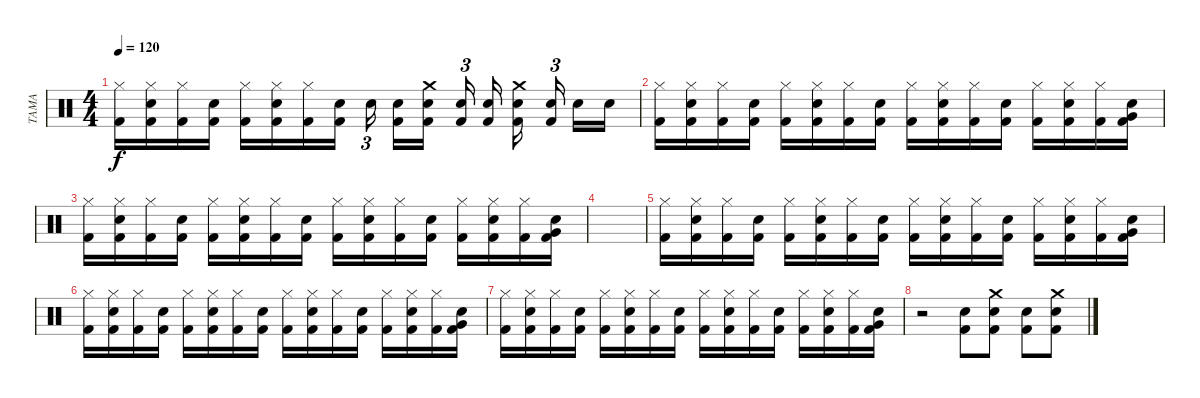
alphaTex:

\track ("TAMA" "TAMA") {instrument percussion}
\staff {score}
\articulation defaults
\ts (4 4)
\tempo 120
\clef neutral
\ks c
("Kick (hit) 2" "Hi-Hat (closed)").16{dy f} ("Kick (hit) 2" "Hi-Hat (closed)" "Electric Snare (hit)").16 ("Kick (hit) 2" "Hi-Hat (closed)").16 ("Kick (hit) 2" "Electric Snare (hit)").16 ("Kick (hit) 2" "Hi-Hat (closed)").16 ("Kick (hit) 2" "Hi-Hat (closed)" "Electric Snare (hit)").16 ("Kick (hit) 2" "Hi-Hat (closed)").16 ("Kick (hit) 2" "Electric Snare (hit)").16 "Electric Snare (hit)".16{tu (3 2)} ("Kick (hit) 2" "Electric Snare (hit)").16 ("Kick (hit) 2" "Electric Snare (hit)" "Crash medium (hit)").16 ("Kick (hit) 2" "Electric Snare (hit)").16{tu (3 2)} ("Kick (hit) 2" "Electric Snare (hit)").16 ("Kick (hit) 2" "Electric Snare (hit)" "Crash medium (hit)").16 ("Kick (hit) 2" "Electric Snare (hit)").16{tu (3 2)} "Electric Snare (hit)".16 "Electric Snare (hit)".16 |
("Kick (hit) 2" "Hi-Hat (closed)").16 ("Kick (hit) 2" "Hi-Hat (closed)" "Electric Snare (hit)").16 ("Kick (hit) 2" "Hi-Hat (closed)").16 ("Kick (hit) 2" "Electric Snare (hit)").16 ("Kick (hit) 2" "Hi-Hat (closed)").16 ("Kick (hit) 2" "Hi-Hat (closed)" "Electric Snare (hit)").16 ("Kick (hit) 2" "Hi-Hat (closed)").16 ("Kick (hit) 2" "Electric Snare (hit)").16 ("Kick (hit) 2" "Hi-Hat (closed)").16 ("Kick (hit) 2" "Hi-Hat (closed)" "Electric Snare (hit)").16 ("Kick (hit) 2" "Hi-Hat (closed)").16 ("Kick (hit) 2" "Electric Snare (hit)").16 ("Kick (hit) 2" "Hi-Hat (closed)").16 ("Kick (hit) 2" "Hi-Hat (closed)" "Electric Snare (hit)").16 ("Kick (hit) 2" "Hi-Hat (closed)").16 ("Kick (hit) 2" "Electric Snare (hit)" "Very Low Tom (hit)").16 |
("Kick (hit) 2" "Hi-Hat (closed)").16 ("Kick (hit) 2" "Hi-Hat (closed)" "Electric Snare (hit)").16 ("Kick (hit) 2" "Hi-Hat (closed)").16 ("Kick (hit) 2" "Electric Snare (hit)").16 ("Kick (hit) 2" "Hi-Hat (closed)").16 ("Kick (hit) 2" "Hi-Hat (closed)" "Electric Snare (hit)").16 ("Kick (hit) 2" "Hi-Hat (closed)").16 ("Kick (hit) 2" "Electric Snare (hit)").16 ("Kick (hit) 2" "Hi-Hat (closed)").16 ("Kick (hit) 2" "Hi-Hat (closed)" "Electric Snare (hit)").16 ("Kick (hit) 2" "Hi-Hat (closed)").16 ("Kick (hit) 2" "Electric Snare (hit)").16 ("Kick (hit) 2" "Hi-Hat (closed)").16 ("Kick (hit) 2" "Hi-Hat (closed)" "Electric Snare (hit)").16 ("Kick (hit) 2" "Hi-Hat (closed)").16 ("Kick (hit) 2" "Electric Snare (hit)" "Very Low Tom (hit)").16 |
|
("Kick (hit) 2" "Hi-Hat (closed)").16 ("Kick (hit) 2" "Hi-Hat (closed)" "Electric Snare (hit)").16 ("Kick (hit) 2" "Hi-Hat (closed)").16 ("Kick (hit) 2" "Electric Snare (hit)").16 ("Kick (hit) 2" "Hi-Hat (closed)").16 ("Kick (hit) 2" "Hi-Hat (closed)" "Electric Snare (hit)").16 ("Kick (hit) 2" "Hi-Hat (closed)").16 ("Kick (hit) 2" "Electric Snare (hit)").16 ("Kick (hit) 2" "Hi-Hat (closed)").16 ("Kick (hit) 2" "Hi-Hat (closed)" "Electric Snare (hit)").16 ("Kick (hit) 2" "Hi-Hat (closed)").16 ("Kick (hit) 2" "Electric Snare (hit)").16 ("Kick (hit) 2" "Hi-Hat (closed)").16 ("Kick (hit) 2" "Hi-Hat (closed)" "Electric Snare (hit)").16 ("Kick (hit) 2" "Hi-Hat (closed)").16 ("Kick (hit) 2" "Electric Snare (hit)" "Very Low Tom (hit)").16 |
("Kick (hit) 2" "Hi-Hat (closed)").16 ("Kick (hit) 2" "Hi-Hat (closed)" "Electric Snare (hit)").16 ("Kick (hit) 2" "Hi-Hat (closed)").16 ("Kick (hit) 2" "Electric Snare (hit)").16 ("Kick (hit) 2" "Hi-Hat (closed)").16 ("Kick (hit) 2" "Hi-Hat (closed)" "Electric Snare (hit)").16 ("Kick (hit) 2" "Hi-Hat (closed)").16 ("Kick (hit) 2" "Electric Snare (hit)").16 ("Kick (hit) 2" "Hi-Hat (closed)").16 ("Kick (hit) 2" "Hi-Hat (closed)" "Electric Snare (hit)").16 ("Kick (hit) 2" "Hi-Hat (closed)").16 ("Kick (hit) 2" "Electric Snare (hit)").16 ("Kick (hit) 2" "Hi-Hat (closed)").16 ("Kick (hit) 2" "Hi-Hat (closed)" "Electric Snare (hit)").16 ("Kick (hit) 2" "Hi-Hat (closed)").16 ("Kick (hit) 2" "Electric Snare (hit)" "Very Low Tom (hit)").16 |
("Kick (hit) 2" "Hi-Hat (closed)").16 ("Kick (hit) 2" "Hi-Hat (closed)" "Electric Snare (hit)").16 ("Kick (hit) 2" "Hi-Hat (closed)").16 ("Kick (hit) 2" "Electric Snare (hit)").16 ("Kick (hit) 2" "Hi-Hat (closed)").16 ("Kick (hit) 2" "Hi-Hat (closed)" "Electric Snare (hit)").16 ("Kick (hit) 2" "Hi-Hat (closed)").16 ("Kick (hit) 2" "Electric Snare (hit)").16 ("Kick (hit) 2" "Hi-Hat (closed)").16 ("Kick (hit) 2" "Hi-Hat (closed)" "Electric Snare (hit)").16 ("Kick (hit) 2" "Hi-Hat (closed)").16 ("Kick (hit) 2" "Electric Snare (hit)").16 ("Kick (hit) 2" "Hi-Hat (closed)").16 ("Kick (hit) 2" "Hi-Hat (closed)" "Electric Snare (hit)").16 ("Kick (hit) 2" "Hi-Hat (closed)").16 ("Kick (hit) 2" "Electric Snare (hit)" "Very Low Tom (hit)").16 |
r.2 ("Kick (hit) 2" "Electric Snare (hit)").8 ("Kick (hit) 2" "Electric Snare (hit)" "Crash medium (hit)").8 ("Kick (hit) 2" "Electric Snare (hit)").8 ("Kick (hit) 2" "Electric Snare (hit)" "Crash medium (hit)").8
